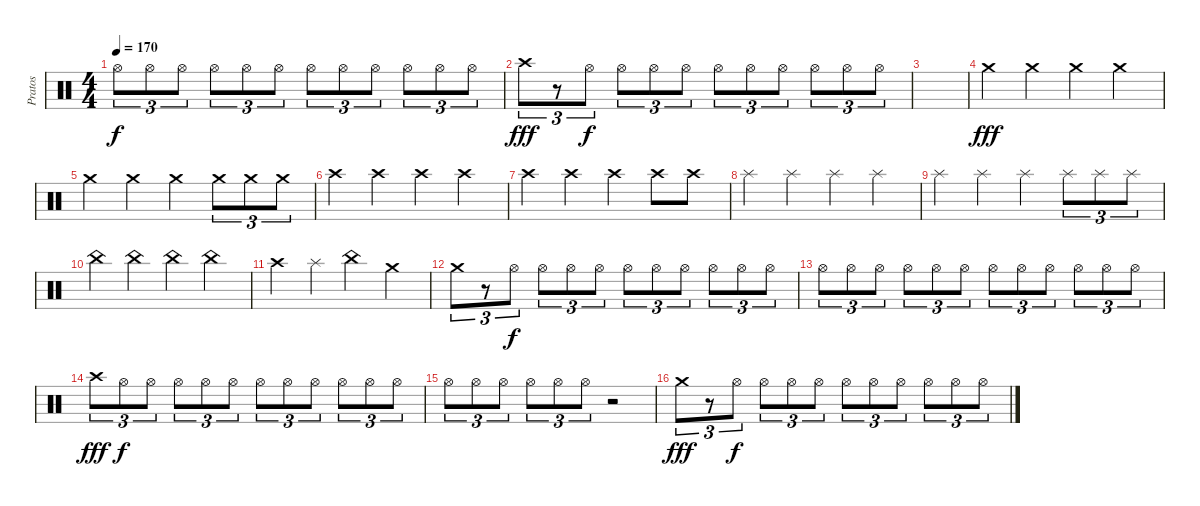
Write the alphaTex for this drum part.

\track ("Pratos" "Pratos") {instrument percussion}
\staff {score}
\articulation defaults
\ts (4 4)
\tempo 170
\clef neutral
\ks c "Hi-Hat (open)".8{tu (3 2) dy f} "Hi-Hat (open)".8{tu (3 2)} "Hi-Hat (open)".8{tu (3 2)} "Hi-Hat (open)".8{tu (3 2)} "Hi-Hat (open)".8{tu (3 2)} "Hi-Hat (open)".8{tu (3 2)} "Hi-Hat (open)".8{tu (3 2)} "Hi-Hat (open)".8{tu (3 2)} "Hi-Hat (open)".8{tu (3 2)} "Hi-Hat (open)".8{tu (3 2)} "Hi-Hat (open)".8{tu (3 2)} "Hi-Hat (open)".8{tu (3 2)}
|
"Crash high (hit)".8{tu (3 2) dy fff} r.8{tu (3 2)} "Hi-Hat (open)".8{tu (3 2) dy f} "Hi-Hat (open)".8{tu (3 2)} "Hi-Hat (open)".8{tu (3 2)} "Hi-Hat (open)".8{tu (3 2)} "Hi-Hat (open)".8{tu (3 2)} "Hi-Hat (open)".8{tu (3 2)} "Hi-Hat (open)".8{tu (3 2)} "Hi-Hat (open)".8{tu (3 2)} "Hi-Hat (open)".8{tu (3 2)} "Hi-Hat (open)".8{tu (3 2)} |
|
"Crash medium (hit)".4{dy fff} "Crash medium (hit)".4 "Crash medium (hit)".4 "Crash medium (hit)".4 |
"Crash medium (hit)".4 "Crash medium (hit)".4 "Crash medium (hit)".4 "Crash medium (hit)".8{tu (3 2)} "Crash medium (hit)".8{tu (3 2)} "Crash medium (hit)".8{tu (3 2)} |
"Crash high (hit)".4 "Crash high (hit)".4 "Crash high (hit)".4 "Crash high (hit)".4 |
"Crash high (hit)".4 "Crash high (hit)".4 "Crash high (hit)".4 "Crash high (hit)".8 "Crash high (hit)".8 |
"Splash (hit)".4 "Splash (hit)".4 "Splash (hit)".4 "Splash (hit)".4 |
"Splash (hit)".4 "Splash (hit)".4 "Splash (hit)".4 "Splash (hit)".8{tu (3 2)} "Splash (hit)".8{tu (3 2)} "Splash (hit)".8{tu (3 2)} |
"China (hit)".4 "China (hit)".4 "China (hit)".4 "China (hit)".4 |
"Crash high (hit)".4 "Splash (hit)".4 "China (hit)".4 "Crash medium (hit)".4 |
"Crash medium (hit)".8{tu (3 2)} r.8{tu (3 2)} "Hi-Hat (open)".8{tu (3 2) dy f} "Hi-Hat (open)".8{tu (3 2)} "Hi-Hat (open)".8{tu (3 2)} "Hi-Hat (open)".8{tu (3 2)} "Hi-Hat (open)".8{tu (3 2)} "Hi-Hat (open)".8{tu (3 2)} "Hi-Hat (open)".8{tu (3 2)} "Hi-Hat (open)".8{tu (3 2)} "Hi-Hat (open)".8{tu (3 2)} "Hi-Hat (open)".8{tu (3 2)} |
"Hi-Hat (open)".8{tu (3 2)} "Hi-Hat (open)".8{tu (3 2)} "Hi-Hat (open)".8{tu (3 2)} "Hi-Hat (open)".8{tu (3 2)} "Hi-Hat (open)".8{tu (3 2)} "Hi-Hat (open)".8{tu (3 2)} "Hi-Hat (open)".8{tu (3 2)} "Hi-Hat (open)".8{tu (3 2)} "Hi-Hat (open)".8{tu (3 2)} "Hi-Hat (open)".8{tu (3 2)} "Hi-Hat (open)".8{tu (3 2)} "Hi-Hat (open)".8{tu (3 2)} |
"Crash high (hit)".8{tu (3 2) dy fff} "Hi-Hat (open)".8{tu (3 2) dy f} "Hi-Hat (open)".8{tu (3 2)} "Hi-Hat (open)".8{tu (3 2)} "Hi-Hat (open)".8{tu (3 2)} "Hi-Hat (open)".8{tu (3 2)} "Hi-Hat (open)".8{tu (3 2)} "Hi-Hat (open)".8{tu (3 2)} "Hi-Hat (open)".8{tu (3 2)} "Hi-Hat (open)".8{tu (3 2)} "Hi-Hat (open)".8{tu (3 2)} "Hi-Hat (open)".8{tu (3 2)} |
"Hi-Hat (open)".8{tu (3 2)} "Hi-Hat (open)".8{tu (3 2)} "Hi-Hat (open)".8{tu (3 2)} "Hi-Hat (open)".8{tu (3 2)} "Hi-Hat (open)".8{tu (3 2)} "Hi-Hat (open)".8{tu (3 2)} r.2 |
"Crash medium (hit)".8{tu (3 2) dy fff} r.8{tu (3 2)} "Hi-Hat (open)".8{tu (3 2) dy f} "Hi-Hat (open)".8{tu (3 2)} "Hi-Hat (open)".8{tu (3 2)} "Hi-Hat (open)".8{tu (3 2)} "Hi-Hat (open)".8{tu (3 2)} "Hi-Hat (open)".8{tu (3 2)} "Hi-Hat (open)".8{tu (3 2)} "Hi-Hat (open)".8{tu (3 2)} "Hi-Hat (open)".8{tu (3 2)} "Hi-Hat (open)".8{tu (3 2)}
